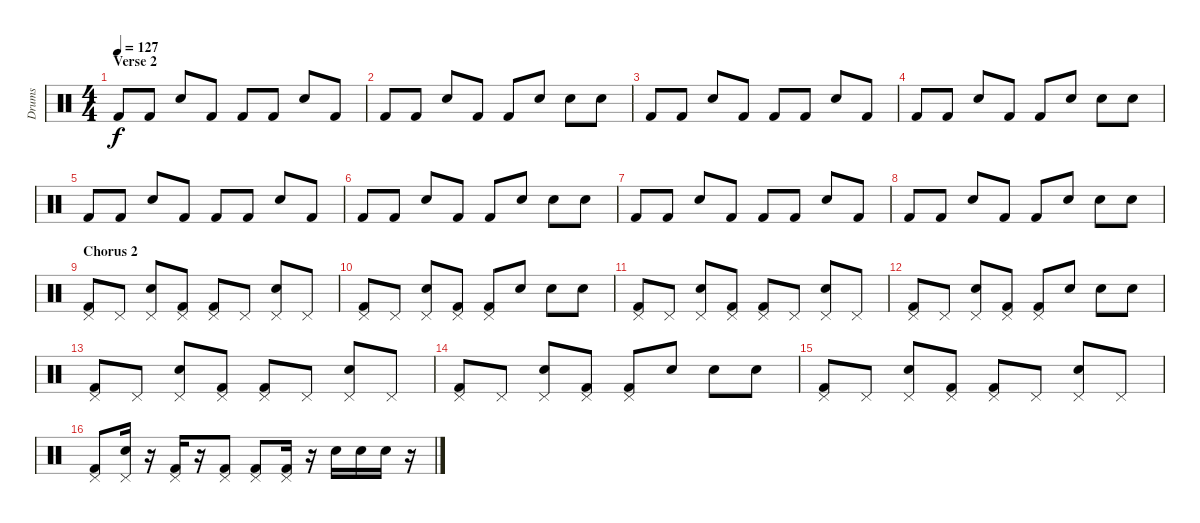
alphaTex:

\track ("Drums" "Drums") {instrument percussion}
\staff {score}
\articulation defaults
\ts (4 4)
\section ("" "Verse 2")
\tempo 127
\clef neutral
\ks c "Kick (hit) 2".8{dy f} "Kick (hit) 2".8 "Snare (hit) 2".8 "Kick (hit) 2".8 "Kick (hit) 2".8 "Kick (hit) 2".8 "Snare (hit) 2".8 "Kick (hit) 2".8
|
"Kick (hit) 2".8 "Kick (hit) 2".8 "Snare (hit) 2".8 "Kick (hit) 2".8 "Kick (hit) 2".8 "Snare (hit) 2".8 "Snare (hit) 2".8 "Snare (hit) 2".8 |
"Kick (hit) 2".8 "Kick (hit) 2".8 "Snare (hit) 2".8 "Kick (hit) 2".8 "Kick (hit) 2".8 "Kick (hit) 2".8 "Snare (hit) 2".8 "Kick (hit) 2".8 |
"Kick (hit) 2".8 "Kick (hit) 2".8 "Snare (hit) 2".8 "Kick (hit) 2".8 "Kick (hit) 2".8 "Snare (hit) 2".8 "Snare (hit) 2".8 "Snare (hit) 2".8 |
"Kick (hit) 2".8 "Kick (hit) 2".8 "Snare (hit) 2".8 "Kick (hit) 2".8 "Kick (hit) 2".8 "Kick (hit) 2".8 "Snare (hit) 2".8 "Kick (hit) 2".8 |
"Kick (hit) 2".8 "Kick (hit) 2".8 "Snare (hit) 2".8 "Kick (hit) 2".8 "Kick (hit) 2".8 "Snare (hit) 2".8 "Snare (hit) 2".8 "Snare (hit) 2".8 |
"Kick (hit) 2".8 "Kick (hit) 2".8 "Snare (hit) 2".8 "Kick (hit) 2".8 "Kick (hit) 2".8 "Kick (hit) 2".8 "Snare (hit) 2".8 "Kick (hit) 2".8 |
"Kick (hit) 2".8 "Kick (hit) 2".8 "Snare (hit) 2".8 "Kick (hit) 2".8 "Kick (hit) 2".8 "Snare (hit) 2".8 "Snare (hit) 2".8 "Snare (hit) 2".8 |
\section ("" "Chorus 2")
("Pedal Hi-Hat (hit)" "Kick (hit) 2").8 "Pedal Hi-Hat (hit)".8 ("Pedal Hi-Hat (hit)" "Snare (hit) 2").8 ("Pedal Hi-Hat (hit)" "Kick (hit) 2").8 ("Pedal Hi-Hat (hit)" "Kick (hit) 2").8 "Pedal Hi-Hat (hit)".8 ("Pedal Hi-Hat (hit)" "Snare (hit) 2").8 "Pedal Hi-Hat (hit)".8 |
("Pedal Hi-Hat (hit)" "Kick (hit) 2").8 "Pedal Hi-Hat (hit)".8 ("Pedal Hi-Hat (hit)" "Snare (hit) 2").8 ("Pedal Hi-Hat (hit)" "Kick (hit) 2").8 ("Pedal Hi-Hat (hit)" "Kick (hit) 2").8 "Snare (hit) 2".8 "Snare (hit) 2".8 "Snare (hit) 2".8 |
("Pedal Hi-Hat (hit)" "Kick (hit) 2").8 "Pedal Hi-Hat (hit)".8 ("Pedal Hi-Hat (hit)" "Snare (hit) 2").8 ("Pedal Hi-Hat (hit)" "Kick (hit) 2").8 ("Pedal Hi-Hat (hit)" "Kick (hit) 2").8 "Pedal Hi-Hat (hit)".8 ("Pedal Hi-Hat (hit)" "Snare (hit) 2").8 "Pedal Hi-Hat (hit)".8 |
("Pedal Hi-Hat (hit)" "Kick (hit) 2").8 "Pedal Hi-Hat (hit)".8 ("Pedal Hi-Hat (hit)" "Snare (hit) 2").8 ("Pedal Hi-Hat (hit)" "Kick (hit) 2").8 ("Pedal Hi-Hat (hit)" "Kick (hit) 2").8 "Snare (hit) 2".8 "Snare (hit) 2".8 "Snare (hit) 2".8 |
("Pedal Hi-Hat (hit)" "Kick (hit) 2").8 "Pedal Hi-Hat (hit)".8 ("Pedal Hi-Hat (hit)" "Snare (hit) 2").8 ("Pedal Hi-Hat (hit)" "Kick (hit) 2").8 ("Pedal Hi-Hat (hit)" "Kick (hit) 2").8 "Pedal Hi-Hat (hit)".8 ("Pedal Hi-Hat (hit)" "Snare (hit) 2").8 "Pedal Hi-Hat (hit)".8 |
("Pedal Hi-Hat (hit)" "Kick (hit) 2").8 "Pedal Hi-Hat (hit)".8 ("Pedal Hi-Hat (hit)" "Snare (hit) 2").8 ("Pedal Hi-Hat (hit)" "Kick (hit) 2").8 ("Pedal Hi-Hat (hit)" "Kick (hit) 2").8 "Snare (hit) 2".8 "Snare (hit) 2".8 "Snare (hit) 2".8 |
("Pedal Hi-Hat (hit)" "Kick (hit) 2").8 "Pedal Hi-Hat (hit)".8 ("Pedal Hi-Hat (hit)" "Snare (hit) 2").8 ("Pedal Hi-Hat (hit)" "Kick (hit) 2").8 ("Pedal Hi-Hat (hit)" "Kick (hit) 2").8 "Pedal Hi-Hat (hit)".8 ("Pedal Hi-Hat (hit)" "Snare (hit) 2").8 "Pedal Hi-Hat (hit)".8 |
("Pedal Hi-Hat (hit)" "Kick (hit) 2").8 ("Pedal Hi-Hat (hit)" "Snare (hit) 2").16 r.16 ("Pedal Hi-Hat (hit)" "Kick (hit) 2").16 r.16 ("Pedal Hi-Hat (hit)" "Kick (hit) 2").8 ("Pedal Hi-Hat (hit)" "Kick (hit) 2").8 ("Pedal Hi-Hat (hit)" "Kick (hit) 2").16 r.16 "Snare (hit) 2".16 "Snare (hit) 2".16 "Snare (hit) 2".16 r.16
